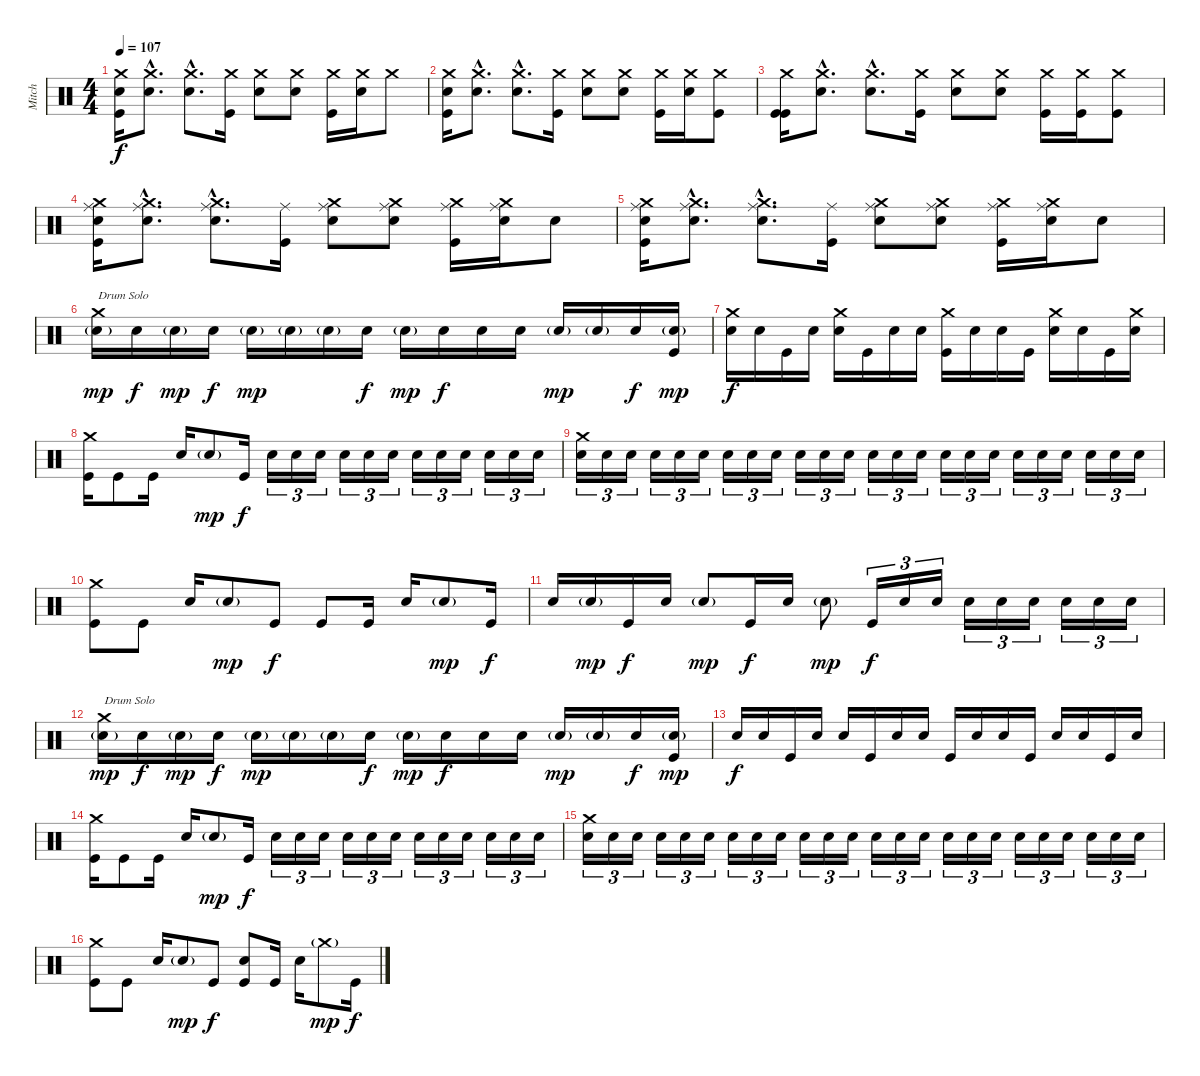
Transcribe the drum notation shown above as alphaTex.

\track ("Mitch" "Mitch") {instrument percussion}
\staff {score}
\articulation defaults
\ts (4 4)
\tempo 107
\clef neutral
\ks c
("Electric Snare (hit)" "Crash medium (hit)" "Kick (hit)").16{dy f} ("Electric Snare (hit)"{hac} "Crash medium (hit)"{hac}).8{d} ("Electric Snare (hit)"{hac} "Crash medium (hit)"{hac}).8{d} ("Crash medium (hit)" "Kick (hit)").16 ("Electric Snare (hit)" "Crash medium (hit)").8 ("Electric Snare (hit)" "Crash medium (hit)").8 ("Crash medium (hit)" "Kick (hit)").16 ("Electric Snare (hit)" "Crash medium (hit)").16 "Crash medium (hit)".8 |
("Electric Snare (hit)" "Crash medium (hit)" "Kick (hit)").16 ("Electric Snare (hit)"{hac} "Crash medium (hit)"{hac}).8{d} ("Electric Snare (hit)"{hac} "Crash medium (hit)"{hac}).8{d} ("Crash medium (hit)" "Kick (hit)").16 ("Electric Snare (hit)" "Crash medium (hit)").8 ("Electric Snare (hit)" "Crash medium (hit)").8 ("Crash medium (hit)" "Kick (hit)").16 ("Electric Snare (hit)" "Crash medium (hit)").16 ("Kick (hit)" "Crash medium (hit)").8 |
("Kick (hit)" "Crash medium (hit)" "Kick (hit)").16 ("Electric Snare (hit)"{hac} "Crash medium (hit)"{hac}).8{d} ("Electric Snare (hit)"{hac} "Crash medium (hit)"{hac}).8{d} ("Crash medium (hit)" "Kick (hit)").16 ("Electric Snare (hit)" "Crash medium (hit)").8 ("Electric Snare (hit)" "Crash medium (hit)").8 ("Crash medium (hit)" "Kick (hit)").16 ("Kick (hit)" "Crash medium (hit)").16 ("Kick (hit)" "Crash medium (hit)").8 |
("Ride (middle)" "Electric Snare (hit)" "Crash medium (hit)" "Kick (hit)").16 ("Ride (middle)"{hac} "Electric Snare (hit)"{hac} "Crash medium (hit)"{hac}).8{d} ("Ride (middle)"{hac} "Electric Snare (hit)"{hac} "Crash medium (hit)"{hac}).8{d} ("Ride (middle)" "Kick (hit)").16 ("Ride (middle)" "Electric Snare (hit)" "Crash medium (hit)").8 ("Ride (middle)" "Electric Snare (hit)" "Crash medium (hit)").8 ("Ride (middle)" "Crash medium (hit)" "Kick (hit)").16 ("Ride (middle)" "Electric Snare (hit)" "Crash medium (hit)").16 "Electric Snare (hit)".8 |
("Ride (middle)" "Electric Snare (hit)" "Crash medium (hit)" "Kick (hit)").16 ("Ride (middle)"{hac} "Electric Snare (hit)"{hac} "Crash medium (hit)"{hac}).8{d} ("Ride (middle)"{hac} "Electric Snare (hit)"{hac} "Crash medium (hit)"{hac}).8{d} ("Ride (middle)" "Kick (hit)").16 ("Ride (middle)" "Electric Snare (hit)" "Crash medium (hit)").8 ("Ride (middle)" "Electric Snare (hit)" "Crash medium (hit)").8 ("Ride (middle)" "Crash medium (hit)" "Kick (hit)").16 ("Ride (middle)" "Electric Snare (hit)" "Crash medium (hit)").16 "Electric Snare (hit)".8 |
("Crash medium (hit)" "Electric Snare (hit)"{g}).16{txt "Drum Solo" dy mp} "Electric Snare (hit)".16{dy f} "Electric Snare (hit)"{g}.16{dy mp} "Electric Snare (hit)".16{dy f} "Electric Snare (hit)"{g}.16{dy mp} "Electric Snare (hit)"{g}.16 "Electric Snare (hit)"{g}.16 "Electric Snare (hit)".16{dy f} "Electric Snare (hit)"{g}.16{dy mp} "Electric Snare (hit)".16{dy f} "Electric Snare (hit)".16 "Electric Snare (hit)".16 "Electric Snare (hit)"{g}.16{dy mp} "Electric Snare (hit)"{g}.16 "Electric Snare (hit)".16{dy f} ("Electric Snare (hit)"{g} "Kick (hit)").16{dy mp} |
("Crash medium (hit)" "Electric Snare (hit)").16{dy f} "Electric Snare (hit)".16 "Kick (hit)".16 "Electric Snare (hit)".16 ("Crash medium (hit)" "Electric Snare (hit)").16 "Kick (hit)".16 "Electric Snare (hit)".16 "Electric Snare (hit)".16 ("Crash medium (hit)" "Kick (hit)").16 "Electric Snare (hit)".16 "Electric Snare (hit)".16 "Kick (hit)".16 ("Crash medium (hit)" "Electric Snare (hit)").16 "Electric Snare (hit)".16 "Kick (hit)".16 ("Crash medium (hit)" "Electric Snare (hit)").16 |
("Crash medium (hit)" "Kick (hit)").16 "Kick (hit)".8 "Kick (hit)".16 "Electric Snare (hit)".16 "Electric Snare (hit)"{g}.8{dy mp} "Kick (hit)".16{dy f} "Electric Snare (hit)".16{tu (3 2)} "Electric Snare (hit)".16{tu (3 2)} "Electric Snare (hit)".16{tu (3 2)} "Electric Snare (hit)".16{tu (3 2)} "Electric Snare (hit)".16{tu (3 2)} "Electric Snare (hit)".16{tu (3 2)} "Electric Snare (hit)".16{tu (3 2)} "Electric Snare (hit)".16{tu (3 2)} "Electric Snare (hit)".16{tu (3 2)} "Electric Snare (hit)".16{tu (3 2)} "Electric Snare (hit)".16{tu (3 2)} "Electric Snare (hit)".16{tu (3 2)} |
("Crash medium (hit)" "Electric Snare (hit)").16{tu (3 2)} "Electric Snare (hit)".16{tu (3 2)} "Electric Snare (hit)".16{tu (3 2)} "Electric Snare (hit)".16{tu (3 2)} "Electric Snare (hit)".16{tu (3 2)} "Electric Snare (hit)".16{tu (3 2)} "Electric Snare (hit)".16{tu (3 2)} "Electric Snare (hit)".16{tu (3 2)} "Electric Snare (hit)".16{tu (3 2)} "Electric Snare (hit)".16{tu (3 2)} "Electric Snare (hit)".16{tu (3 2)} "Electric Snare (hit)".16{tu (3 2)} "Electric Snare (hit)".16{tu (3 2)} "Electric Snare (hit)".16{tu (3 2)} "Electric Snare (hit)".16{tu (3 2)} "Electric Snare (hit)".16{tu (3 2)} "Electric Snare (hit)".16{tu (3 2)} "Electric Snare (hit)".16{tu (3 2)} "Electric Snare (hit)".16{tu (3 2)} "Electric Snare (hit)".16{tu (3 2)} "Electric Snare (hit)".16{tu (3 2)} "Electric Snare (hit)".16{tu (3 2)} "Electric Snare (hit)".16{tu (3 2)} "Electric Snare (hit)".16{tu (3 2)} |
("Crash medium (hit)" "Kick (hit)").8 "Kick (hit)".8 "Electric Snare (hit)".16 "Electric Snare (hit)"{g}.8{dy mp} "Kick (hit)".8{dy f} "Kick (hit)".8 "Kick (hit)".16 "Electric Snare (hit)".16 "Electric Snare (hit)"{g}.8{dy mp} "Kick (hit)".16{dy f} |
"Electric Snare (hit)".16 "Electric Snare (hit)"{g}.16{dy mp} "Kick (hit)".16{dy f} "Electric Snare (hit)".16 "Electric Snare (hit)"{g}.8{dy mp} "Kick (hit)".16{dy f} "Electric Snare (hit)".16 "Electric Snare (hit)"{g}.8{dy mp} "Kick (hit)".16{tu (3 2) dy f} "Electric Snare (hit)".16{tu (3 2)} "Electric Snare (hit)".16{tu (3 2)} "Electric Snare (hit)".16{tu (3 2)} "Electric Snare (hit)".16{tu (3 2)} "Electric Snare (hit)".16{tu (3 2)} "Electric Snare (hit)".16{tu (3 2)} "Electric Snare (hit)".16{tu (3 2)} "Electric Snare (hit)".16{tu (3 2)} |
("Crash medium (hit)" "Electric Snare (hit)"{g}).16{txt "Drum Solo" dy mp} "Electric Snare (hit)".16{dy f} "Electric Snare (hit)"{g}.16{dy mp} "Electric Snare (hit)".16{dy f} "Electric Snare (hit)"{g}.16{dy mp} "Electric Snare (hit)"{g}.16 "Electric Snare (hit)"{g}.16 "Electric Snare (hit)".16{dy f} "Electric Snare (hit)"{g}.16{dy mp} "Electric Snare (hit)".16{dy f} "Electric Snare (hit)".16 "Electric Snare (hit)".16 "Electric Snare (hit)"{g}.16{dy mp} "Electric Snare (hit)"{g}.16 "Electric Snare (hit)".16{dy f} ("Electric Snare (hit)"{g} "Kick (hit)").16{dy mp} |
"Electric Snare (hit)".16{dy f} "Electric Snare (hit)".16 "Kick (hit)".16 "Electric Snare (hit)".16 "Electric Snare (hit)".16 "Kick (hit)".16 "Electric Snare (hit)".16 "Electric Snare (hit)".16 "Kick (hit)".16 "Electric Snare (hit)".16 "Electric Snare (hit)".16 "Kick (hit)".16 "Electric Snare (hit)".16 "Electric Snare (hit)".16 "Kick (hit)".16 "Electric Snare (hit)".16 |
("Crash medium (hit)" "Kick (hit)").16 "Kick (hit)".8 "Kick (hit)".16 "Electric Snare (hit)".16 "Electric Snare (hit)"{g}.8{dy mp} "Kick (hit)".16{dy f} "Electric Snare (hit)".16{tu (3 2)} "Electric Snare (hit)".16{tu (3 2)} "Electric Snare (hit)".16{tu (3 2)} "Electric Snare (hit)".16{tu (3 2)} "Electric Snare (hit)".16{tu (3 2)} "Electric Snare (hit)".16{tu (3 2)} "Electric Snare (hit)".16{tu (3 2)} "Electric Snare (hit)".16{tu (3 2)} "Electric Snare (hit)".16{tu (3 2)} "Electric Snare (hit)".16{tu (3 2)} "Electric Snare (hit)".16{tu (3 2)} "Electric Snare (hit)".16{tu (3 2)} |
("Crash medium (hit)" "Electric Snare (hit)").16{tu (3 2)} "Electric Snare (hit)".16{tu (3 2)} "Electric Snare (hit)".16{tu (3 2)} "Electric Snare (hit)".16{tu (3 2)} "Electric Snare (hit)".16{tu (3 2)} "Electric Snare (hit)".16{tu (3 2)} "Electric Snare (hit)".16{tu (3 2)} "Electric Snare (hit)".16{tu (3 2)} "Electric Snare (hit)".16{tu (3 2)} "Electric Snare (hit)".16{tu (3 2)} "Electric Snare (hit)".16{tu (3 2)} "Electric Snare (hit)".16{tu (3 2)} "Electric Snare (hit)".16{tu (3 2)} "Electric Snare (hit)".16{tu (3 2)} "Electric Snare (hit)".16{tu (3 2)} "Electric Snare (hit)".16{tu (3 2)} "Electric Snare (hit)".16{tu (3 2)} "Electric Snare (hit)".16{tu (3 2)} "Electric Snare (hit)".16{tu (3 2)} "Electric Snare (hit)".16{tu (3 2)} "Electric Snare (hit)".16{tu (3 2)} "Electric Snare (hit)".16{tu (3 2)} "Electric Snare (hit)".16{tu (3 2)} "Electric Snare (hit)".16{tu (3 2)} |
("Crash medium (hit)" "Kick (hit)").8 "Kick (hit)".8 "Electric Snare (hit)".16 "Electric Snare (hit)"{g}.8{dy mp} "Kick (hit)".8{dy f} ("Electric Snare (hit)" "Kick (hit)").8 "Kick (hit)".16 "Electric Snare (hit)".16 "Crash medium (hit)"{g}.8{dy mp} "Kick (hit)".16{dy f}
